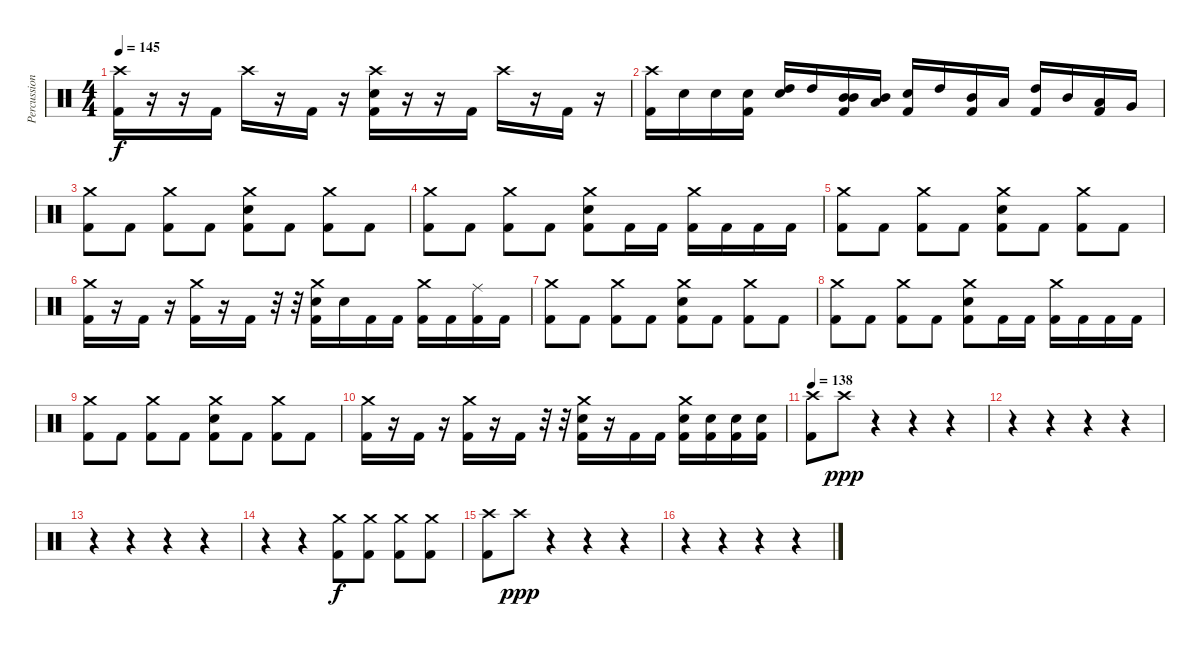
\track ("Percussion" "Percussion") {instrument percussion}
\staff {score}
\articulation defaults
\ts (4 4)
\tempo 145
\clef neutral
\ks c
("Crash high (hit)" "Kick (hit) 2").16{dy f} r.16 r.16 "Kick (hit) 2".16 "Crash high (hit)".16 r.16 "Kick (hit) 2".16 r.16 ("Crash high (hit)" "Electric Snare (hit)" "Kick (hit) 2").16 r.16 r.16 "Kick (hit) 2".16 "Crash high (hit)".16 r.16 "Kick (hit) 2".16 r.16 |
("Crash high (hit)" "Kick (hit) 2").16 "Electric Snare (hit)".16 "Electric Snare (hit)".16 ("Electric Snare (hit)" "Kick (hit) 2").16 ("High Tom (hit)" "Electric Snare (hit)").16 "High Tom (hit)".16 ("Mid Tom (hit)" "Mid Tom (hit)" "Kick (hit) 2").16 ("Mid Tom (hit)" "Low Tom (hit)").16 ("Electric Snare (hit)" "Kick (hit) 2").16 "High Tom (hit)".16 ("Mid Tom (hit)" "Kick (hit) 2").16 "Low Tom (hit)".16 ("High Tom (hit)" "Kick (hit) 2").16 "Mid Tom (hit)".16 ("Low Tom (hit)" "Kick (hit) 2").16 "Very Low Tom (hit)".16 |
("Crash medium (hit)" "Kick (hit) 2").8 "Kick (hit) 2".8 ("Crash medium (hit)" "Kick (hit) 2").8 "Kick (hit) 2".8 ("Crash medium (hit)" "Electric Snare (hit)" "Kick (hit) 2").8 "Kick (hit) 2".8 ("Crash medium (hit)" "Kick (hit) 2").8 "Kick (hit) 2".8 |
("Crash medium (hit)" "Kick (hit) 2").8 "Kick (hit) 2".8 ("Crash medium (hit)" "Kick (hit) 2").8 "Kick (hit) 2".8 ("Crash medium (hit)" "Electric Snare (hit)" "Kick (hit) 2").8 "Kick (hit) 2".16 "Kick (hit) 2".16 ("Crash medium (hit)" "Kick (hit) 2").16 "Kick (hit) 2".16 "Kick (hit) 2".16 "Kick (hit) 2".16 |
("Crash medium (hit)" "Kick (hit) 2").8 "Kick (hit) 2".8 ("Crash medium (hit)" "Kick (hit) 2").8 "Kick (hit) 2".8 ("Crash medium (hit)" "Electric Snare (hit)" "Kick (hit) 2").8 "Kick (hit) 2".8 ("Crash medium (hit)" "Kick (hit) 2").8 "Kick (hit) 2".8 |
("Crash medium (hit)" "Kick (hit) 2").16 r.16 "Kick (hit) 2".16 r.16 ("Crash medium (hit)" "Kick (hit) 2").16 r.16 "Kick (hit) 2".16 r.32 r.32 ("Crash medium (hit)" "Electric Snare (hit)" "Kick (hit) 2").16 "Electric Snare (hit)".16 "Kick (hit) 2".16 "Kick (hit) 2".16 ("Crash medium (hit)" "Kick (hit) 2").16 "Kick (hit) 2".16 ("Ride (middle)" "Kick (hit) 2").16 "Kick (hit) 2".16 |
("Crash medium (hit)" "Kick (hit) 2").8 "Kick (hit) 2".8 ("Crash medium (hit)" "Kick (hit) 2").8 "Kick (hit) 2".8 ("Crash medium (hit)" "Electric Snare (hit)" "Kick (hit) 2").8 "Kick (hit) 2".8 ("Crash medium (hit)" "Kick (hit) 2").8 "Kick (hit) 2".8 |
("Crash medium (hit)" "Kick (hit) 2").8 "Kick (hit) 2".8 ("Crash medium (hit)" "Kick (hit) 2").8 "Kick (hit) 2".8 ("Crash medium (hit)" "Electric Snare (hit)" "Kick (hit) 2").8 "Kick (hit) 2".16 "Kick (hit) 2".16 ("Crash medium (hit)" "Kick (hit) 2").16 "Kick (hit) 2".16 "Kick (hit) 2".16 "Kick (hit) 2".16 |
("Crash medium (hit)" "Kick (hit) 2").8 "Kick (hit) 2".8 ("Crash medium (hit)" "Kick (hit) 2").8 "Kick (hit) 2".8 ("Crash medium (hit)" "Electric Snare (hit)" "Kick (hit) 2").8 "Kick (hit) 2".8 ("Crash medium (hit)" "Kick (hit) 2").8 "Kick (hit) 2".8 |
("Crash medium (hit)" "Kick (hit) 2").16 r.16 "Kick (hit) 2".16 r.16 ("Crash medium (hit)" "Kick (hit) 2").16 r.16 "Kick (hit) 2".16 r.32 r.32 ("Crash medium (hit)" "Electric Snare (hit)" "Kick (hit) 2").16 r.16 "Kick (hit) 2".16 "Kick (hit) 2".16 ("Crash medium (hit)" "Electric Snare (hit)" "Kick (hit) 2").16 ("Electric Snare (hit)" "Kick (hit) 2").16 ("Electric Snare (hit)" "Kick (hit) 2").16 ("Electric Snare (hit)" "Kick (hit) 2").16 |
\tempo 138
("Crash high (hit)" "Kick (hit) 2").8 "Crash high (hit)".8{dy ppp} r.4 r.4 r.4 |
r.4 r.4 r.4 r.4 |
r.4 r.4 r.4 r.4 |
r.4 r.4 ("Crash medium (hit)" "Kick (hit) 2").8{dy f} ("Crash medium (hit)" "Kick (hit) 2").8 ("Crash medium (hit)" "Kick (hit) 2").8 ("Crash medium (hit)" "Kick (hit) 2").8 |
("Crash high (hit)" "Kick (hit) 2").8 "Crash high (hit)".8{dy ppp} r.4 r.4 r.4 |
r.4 r.4 r.4 r.4
